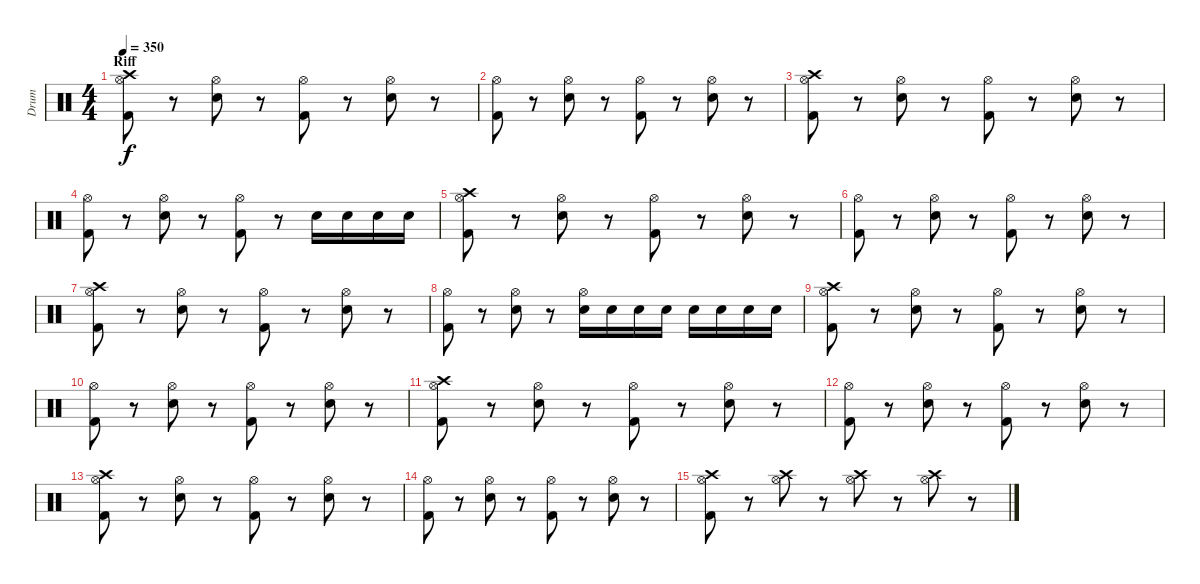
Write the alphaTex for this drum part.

\track ("Drum" "Drum") {instrument percussion}
\staff {score}
\articulation defaults
\ts (4 4)
\section ("" "Riff")
\tempo 350
\clef neutral
\ks c
("Crash high (hit)" "Hi-Hat (open)" "Kick (hit) 2").8{dy f} r.8 ("Hi-Hat (open)" "Electric Snare (hit)").8 r.8 ("Hi-Hat (open)" "Kick (hit) 2").8 r.8 ("Hi-Hat (open)" "Electric Snare (hit)").8 r.8 |
("Hi-Hat (open)" "Kick (hit) 2").8 r.8 ("Hi-Hat (open)" "Electric Snare (hit)").8 r.8 ("Hi-Hat (open)" "Kick (hit) 2").8 r.8 ("Hi-Hat (open)" "Electric Snare (hit)").8 r.8 |
("Crash high (hit)" "Hi-Hat (open)" "Kick (hit) 2").8 r.8 ("Hi-Hat (open)" "Electric Snare (hit)").8 r.8 ("Hi-Hat (open)" "Kick (hit) 2").8 r.8 ("Hi-Hat (open)" "Electric Snare (hit)").8 r.8 |
("Hi-Hat (open)" "Kick (hit) 2").8 r.8 ("Hi-Hat (open)" "Electric Snare (hit)").8 r.8 ("Hi-Hat (open)" "Kick (hit) 2").8 r.8 "Electric Snare (hit)".16 "Electric Snare (hit)".16 "Electric Snare (hit)".16 "Electric Snare (hit)".16 |
("Crash high (hit)" "Hi-Hat (open)" "Kick (hit) 2").8 r.8 ("Hi-Hat (open)" "Electric Snare (hit)").8 r.8 ("Hi-Hat (open)" "Kick (hit) 2").8 r.8 ("Hi-Hat (open)" "Electric Snare (hit)").8 r.8 |
("Hi-Hat (open)" "Kick (hit) 2").8 r.8 ("Hi-Hat (open)" "Electric Snare (hit)").8 r.8 ("Hi-Hat (open)" "Kick (hit) 2").8 r.8 ("Hi-Hat (open)" "Electric Snare (hit)").8 r.8 |
("Crash high (hit)" "Hi-Hat (open)" "Kick (hit) 2").8 r.8 ("Hi-Hat (open)" "Electric Snare (hit)").8 r.8 ("Hi-Hat (open)" "Kick (hit) 2").8 r.8 ("Hi-Hat (open)" "Electric Snare (hit)").8 r.8 |
("Hi-Hat (open)" "Kick (hit) 2").8 r.8 ("Hi-Hat (open)" "Electric Snare (hit)").8 r.8 ("Hi-Hat (open)" "Electric Snare (hit)").16 "Electric Snare (hit)".16 "Electric Snare (hit)".16 "Electric Snare (hit)".16 "Electric Snare (hit)".16 "Electric Snare (hit)".16 "Electric Snare (hit)".16 "Electric Snare (hit)".16 |
("Crash high (hit)" "Hi-Hat (open)" "Kick (hit) 2").8 r.8 ("Hi-Hat (open)" "Electric Snare (hit)").8 r.8 ("Hi-Hat (open)" "Kick (hit) 2").8 r.8 ("Hi-Hat (open)" "Electric Snare (hit)").8 r.8 |
("Hi-Hat (open)" "Kick (hit) 2").8 r.8 ("Hi-Hat (open)" "Electric Snare (hit)").8 r.8 ("Hi-Hat (open)" "Kick (hit) 2").8 r.8 ("Hi-Hat (open)" "Electric Snare (hit)").8 r.8 |
("Crash high (hit)" "Hi-Hat (open)" "Kick (hit) 2").8 r.8 ("Hi-Hat (open)" "Electric Snare (hit)").8 r.8 ("Hi-Hat (open)" "Kick (hit) 2").8 r.8 ("Hi-Hat (open)" "Electric Snare (hit)").8 r.8 |
("Hi-Hat (open)" "Kick (hit) 2").8 r.8 ("Hi-Hat (open)" "Electric Snare (hit)").8 r.8 ("Hi-Hat (open)" "Kick (hit) 2").8 r.8 ("Hi-Hat (open)" "Electric Snare (hit)").8 r.8 |
("Crash high (hit)" "Hi-Hat (open)" "Kick (hit) 2").8 r.8 ("Hi-Hat (open)" "Electric Snare (hit)").8 r.8 ("Hi-Hat (open)" "Kick (hit) 2").8 r.8 ("Hi-Hat (open)" "Electric Snare (hit)").8 r.8 |
("Hi-Hat (open)" "Kick (hit) 2").8 r.8 ("Hi-Hat (open)" "Electric Snare (hit)").8 r.8 ("Hi-Hat (open)" "Kick (hit) 2").8 r.8 ("Hi-Hat (open)" "Electric Snare (hit)").8 r.8 |
("Crash high (hit)" "Hi-Hat (open)" "Kick (hit) 2").8 r.8 ("Crash high (hit)" "Hi-Hat (open)").8 r.8 ("Crash high (hit)" "Hi-Hat (open)").8 r.8 ("Crash high (hit)" "Hi-Hat (open)").8 r.8
